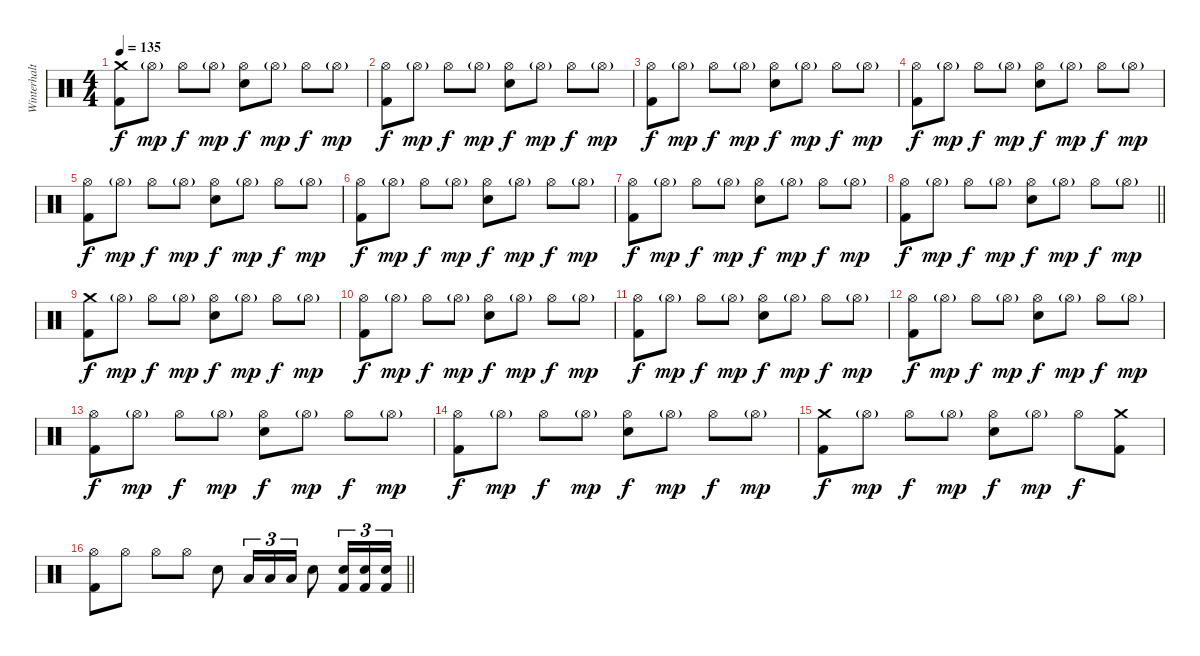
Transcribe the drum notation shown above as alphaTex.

\track ("Winterhalter" "Winterhalt") {instrument percussion}
\staff {score}
\articulation defaults
\ts (4 4)
\tempo 135
\clef neutral
\ks c
("Crash medium (hit)" "Kick (hit) 2").8{dy f} "Hi-Hat (open)"{g}.8{dy mp} "Hi-Hat (open)".8{dy f} "Hi-Hat (open)"{g}.8{dy mp} ("Hi-Hat (open)" "Snare (hit) 2").8{dy f} "Hi-Hat (open)"{g}.8{dy mp} "Hi-Hat (open)".8{dy f} "Hi-Hat (open)"{g}.8{dy mp} |
("Hi-Hat (open)" "Kick (hit) 2").8{dy f} "Hi-Hat (open)"{g}.8{dy mp} "Hi-Hat (open)".8{dy f} "Hi-Hat (open)"{g}.8{dy mp} ("Hi-Hat (open)" "Snare (hit) 2").8{dy f} "Hi-Hat (open)"{g}.8{dy mp} "Hi-Hat (open)".8{dy f} "Hi-Hat (open)"{g}.8{dy mp} |
("Hi-Hat (open)" "Kick (hit) 2").8{dy f} "Hi-Hat (open)"{g}.8{dy mp} "Hi-Hat (open)".8{dy f} "Hi-Hat (open)"{g}.8{dy mp} ("Hi-Hat (open)" "Snare (hit) 2").8{dy f} "Hi-Hat (open)"{g}.8{dy mp} "Hi-Hat (open)".8{dy f} "Hi-Hat (open)"{g}.8{dy mp} |
("Hi-Hat (open)" "Kick (hit) 2").8{dy f} "Hi-Hat (open)"{g}.8{dy mp} "Hi-Hat (open)".8{dy f} "Hi-Hat (open)"{g}.8{dy mp} ("Hi-Hat (open)" "Snare (hit) 2").8{dy f} "Hi-Hat (open)"{g}.8{dy mp} "Hi-Hat (open)".8{dy f} "Hi-Hat (open)"{g}.8{dy mp} |
("Hi-Hat (open)" "Kick (hit) 2").8{dy f} "Hi-Hat (open)"{g}.8{dy mp} "Hi-Hat (open)".8{dy f} "Hi-Hat (open)"{g}.8{dy mp} ("Hi-Hat (open)" "Snare (hit) 2").8{dy f} "Hi-Hat (open)"{g}.8{dy mp} "Hi-Hat (open)".8{dy f} "Hi-Hat (open)"{g}.8{dy mp} |
("Hi-Hat (open)" "Kick (hit) 2").8{dy f} "Hi-Hat (open)"{g}.8{dy mp} "Hi-Hat (open)".8{dy f} "Hi-Hat (open)"{g}.8{dy mp} ("Hi-Hat (open)" "Snare (hit) 2").8{dy f} "Hi-Hat (open)"{g}.8{dy mp} "Hi-Hat (open)".8{dy f} "Hi-Hat (open)"{g}.8{dy mp} |
("Hi-Hat (open)" "Kick (hit) 2").8{dy f} "Hi-Hat (open)"{g}.8{dy mp} "Hi-Hat (open)".8{dy f} "Hi-Hat (open)"{g}.8{dy mp} ("Hi-Hat (open)" "Snare (hit) 2").8{dy f} "Hi-Hat (open)"{g}.8{dy mp} "Hi-Hat (open)".8{dy f} "Hi-Hat (open)"{g}.8{dy mp} |
\barLineRight lightlight
("Hi-Hat (open)" "Kick (hit) 2").8{dy f} "Hi-Hat (open)"{g}.8{dy mp} "Hi-Hat (open)".8{dy f} "Hi-Hat (open)"{g}.8{dy mp} ("Hi-Hat (open)" "Snare (hit) 2").8{dy f} "Hi-Hat (open)"{g}.8{dy mp} "Hi-Hat (open)".8{dy f} "Hi-Hat (open)"{g}.8{dy mp} |
("Crash medium (hit)" "Kick (hit) 2").8{dy f} "Hi-Hat (open)"{g}.8{dy mp} "Hi-Hat (open)".8{dy f} "Hi-Hat (open)"{g}.8{dy mp} ("Hi-Hat (open)" "Snare (hit) 2").8{dy f} "Hi-Hat (open)"{g}.8{dy mp} "Hi-Hat (open)".8{dy f} "Hi-Hat (open)"{g}.8{dy mp} |
("Hi-Hat (open)" "Kick (hit) 2").8{dy f} "Hi-Hat (open)"{g}.8{dy mp} "Hi-Hat (open)".8{dy f} "Hi-Hat (open)"{g}.8{dy mp} ("Hi-Hat (open)" "Snare (hit) 2").8{dy f} "Hi-Hat (open)"{g}.8{dy mp} "Hi-Hat (open)".8{dy f} "Hi-Hat (open)"{g}.8{dy mp} |
("Hi-Hat (open)" "Kick (hit) 2").8{dy f} "Hi-Hat (open)"{g}.8{dy mp} "Hi-Hat (open)".8{dy f} "Hi-Hat (open)"{g}.8{dy mp} ("Hi-Hat (open)" "Snare (hit) 2").8{dy f} "Hi-Hat (open)"{g}.8{dy mp} "Hi-Hat (open)".8{dy f} "Hi-Hat (open)"{g}.8{dy mp} |
("Hi-Hat (open)" "Kick (hit) 2").8{dy f} "Hi-Hat (open)"{g}.8{dy mp} "Hi-Hat (open)".8{dy f} "Hi-Hat (open)"{g}.8{dy mp} ("Hi-Hat (open)" "Snare (hit) 2").8{dy f} "Hi-Hat (open)"{g}.8{dy mp} "Hi-Hat (open)".8{dy f} "Hi-Hat (open)"{g}.8{dy mp} |
("Hi-Hat (open)" "Kick (hit) 2").8{dy f} "Hi-Hat (open)"{g}.8{dy mp} "Hi-Hat (open)".8{dy f} "Hi-Hat (open)"{g}.8{dy mp} ("Hi-Hat (open)" "Snare (hit) 2").8{dy f} "Hi-Hat (open)"{g}.8{dy mp} "Hi-Hat (open)".8{dy f} "Hi-Hat (open)"{g}.8{dy mp} |
("Hi-Hat (open)" "Kick (hit) 2").8{dy f} "Hi-Hat (open)"{g}.8{dy mp} "Hi-Hat (open)".8{dy f} "Hi-Hat (open)"{g}.8{dy mp} ("Hi-Hat (open)" "Snare (hit) 2").8{dy f} "Hi-Hat (open)"{g}.8{dy mp} "Hi-Hat (open)".8{dy f} "Hi-Hat (open)"{g}.8{dy mp} |
("Crash medium (hit)" "Kick (hit) 2").8{dy f} "Hi-Hat (open)"{g}.8{dy mp} "Hi-Hat (open)".8{dy f} "Hi-Hat (open)"{g}.8{dy mp} ("Hi-Hat (open)" "Snare (hit) 2").8{dy f} "Hi-Hat (open)"{g}.8{dy mp} "Hi-Hat (open)".8{dy f} ("Crash medium (hit)" "Kick (hit) 2").8 |
\barLineRight lightlight
("Hi-Hat (open)" "Kick (hit) 2").8 "Hi-Hat (open)".8 "Hi-Hat (open)".8 "Hi-Hat (open)".8 "Snare (hit) 2".8 "Low Floor Tom (hit)".16{tu (3 2)} "Low Floor Tom (hit)".16{tu (3 2)} "Low Floor Tom (hit)".16{tu (3 2)} "Snare (hit) 2".8 ("Snare (hit) 2" "Kick (hit) 2").16{tu (3 2)} ("Snare (hit) 2" "Kick (hit) 2").16{tu (3 2)} ("Snare (hit) 2" "Kick (hit) 2").16{tu (3 2)}
